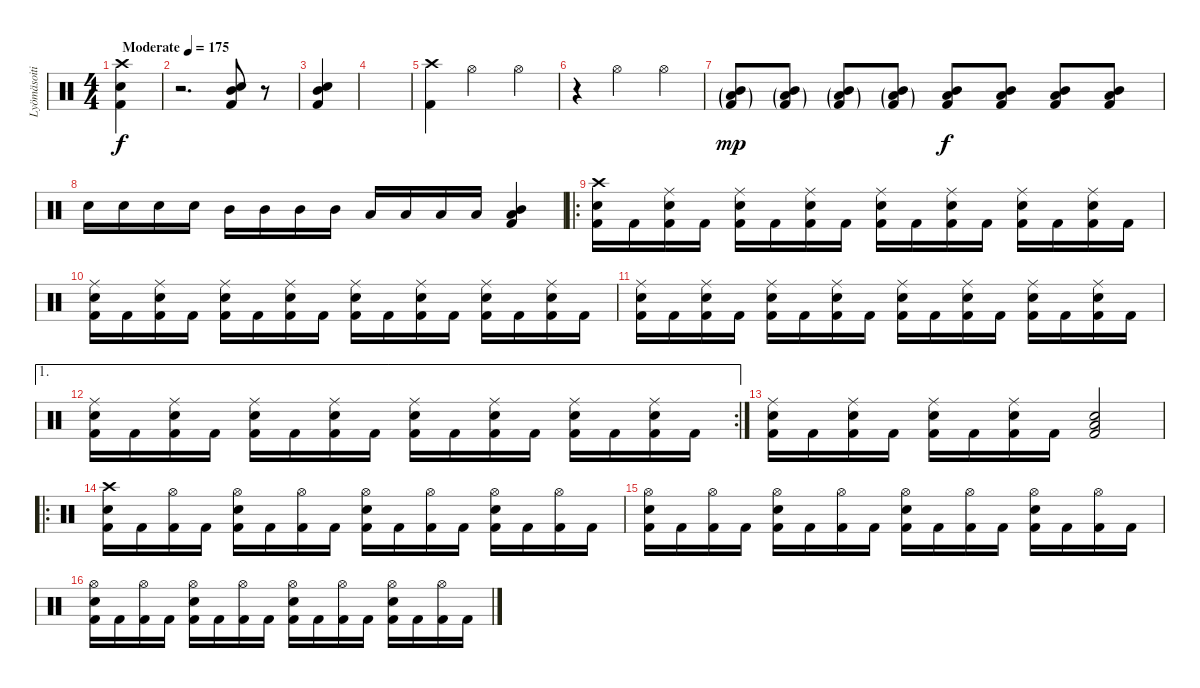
\track ("Lyömäsoitin" "Lyömäsoiti") {instrument percussion}
\staff {score}
\articulation defaults
\ts (4 4)
\tempo (175 "Moderate")
\clef neutral
\ks c
("Kick (hit) 2" "Electric Snare (hit)" "Crash high (hit)").4{dy f} |
r.2{d} ("Kick (hit) 2" "Electric Snare (hit)" "Mid Tom (hit)").8 r.8 |
("Kick (hit) 2" "Electric Snare (hit)" "Mid Tom (hit)").4 |
|
("Kick (hit) 2" "Crash high (hit)").4 "Hi-Hat (open)".2 "Hi-Hat (open)".4 |
r.4 "Hi-Hat (open)".2 "Hi-Hat (open)".4 |
("Kick (hit) 2"{g} "Low Tom (hit)"{g} "Mid Tom (hit)"{g}).8{dy mp} ("Kick (hit) 2"{g} "Low Tom (hit)"{g} "Mid Tom (hit)"{g}).8 ("Kick (hit) 2"{g} "Low Tom (hit)"{g} "Mid Tom (hit)"{g}).8 ("Kick (hit) 2"{g} "Low Tom (hit)"{g} "Mid Tom (hit)"{g}).8 ("Kick (hit) 2" "Low Tom (hit)" "Mid Tom (hit)").8{dy f} ("Kick (hit) 2" "Low Tom (hit)" "Mid Tom (hit)").8 ("Kick (hit) 2" "Low Tom (hit)" "Mid Tom (hit)").8 ("Kick (hit) 2" "Low Tom (hit)" "Mid Tom (hit)").8 |
"Electric Snare (hit)".16 "Electric Snare (hit)".16 "Electric Snare (hit)".16 "Electric Snare (hit)".16 "Mid Tom (hit)".16 "Mid Tom (hit)".16 "Mid Tom (hit)".16 "Mid Tom (hit)".16 "Low Tom (hit)".16 "Low Tom (hit)".16 "Low Tom (hit)".16 "Low Tom (hit)".16 ("Kick (hit) 2" "Low Tom (hit)" "Mid Tom (hit)").4 |
\ro
("Kick (hit) 2" "Electric Snare (hit)" "Crash high (hit)").16 "Kick (hit) 2".16 ("Kick (hit) 2" "Electric Snare (hit)" "Ride (middle)").16 "Kick (hit) 2".16 ("Kick (hit) 2" "Electric Snare (hit)" "Ride (middle)").16 "Kick (hit) 2".16 ("Kick (hit) 2" "Electric Snare (hit)" "Ride (middle)").16 "Kick (hit) 2".16 ("Kick (hit) 2" "Electric Snare (hit)" "Ride (middle)").16 "Kick (hit) 2".16 ("Kick (hit) 2" "Electric Snare (hit)" "Ride (middle)").16 "Kick (hit) 2".16 ("Kick (hit) 2" "Electric Snare (hit)" "Ride (middle)").16 "Kick (hit) 2".16 ("Kick (hit) 2" "Electric Snare (hit)" "Ride (middle)").16 "Kick (hit) 2".16 |
("Kick (hit) 2" "Electric Snare (hit)" "Ride (middle)").16 "Kick (hit) 2".16 ("Kick (hit) 2" "Electric Snare (hit)" "Ride (middle)").16 "Kick (hit) 2".16 ("Kick (hit) 2" "Electric Snare (hit)" "Ride (middle)").16 "Kick (hit) 2".16 ("Kick (hit) 2" "Electric Snare (hit)" "Ride (middle)").16 "Kick (hit) 2".16 ("Kick (hit) 2" "Electric Snare (hit)" "Ride (middle)").16 "Kick (hit) 2".16 ("Kick (hit) 2" "Electric Snare (hit)" "Ride (middle)").16 "Kick (hit) 2".16 ("Kick (hit) 2" "Electric Snare (hit)" "Ride (middle)").16 "Kick (hit) 2".16 ("Kick (hit) 2" "Electric Snare (hit)" "Ride (middle)").16 "Kick (hit) 2".16 |
("Kick (hit) 2" "Electric Snare (hit)" "Ride (middle)").16 "Kick (hit) 2".16 ("Kick (hit) 2" "Electric Snare (hit)" "Ride (middle)").16 "Kick (hit) 2".16 ("Kick (hit) 2" "Electric Snare (hit)" "Ride (middle)").16 "Kick (hit) 2".16 ("Kick (hit) 2" "Electric Snare (hit)" "Ride (middle)").16 "Kick (hit) 2".16 ("Kick (hit) 2" "Electric Snare (hit)" "Ride (middle)").16 "Kick (hit) 2".16 ("Kick (hit) 2" "Electric Snare (hit)" "Ride (middle)").16 "Kick (hit) 2".16 ("Kick (hit) 2" "Electric Snare (hit)" "Ride (middle)").16 "Kick (hit) 2".16 ("Kick (hit) 2" "Electric Snare (hit)" "Ride (middle)").16 "Kick (hit) 2".16 |
\ae 1
\rc 2
("Kick (hit) 2" "Electric Snare (hit)" "Ride (middle)").16 "Kick (hit) 2".16 ("Kick (hit) 2" "Electric Snare (hit)" "Ride (middle)").16 "Kick (hit) 2".16 ("Kick (hit) 2" "Electric Snare (hit)" "Ride (middle)").16 "Kick (hit) 2".16 ("Kick (hit) 2" "Electric Snare (hit)" "Ride (middle)").16 "Kick (hit) 2".16 ("Kick (hit) 2" "Electric Snare (hit)" "Ride (middle)").16 "Kick (hit) 2".16 ("Kick (hit) 2" "Electric Snare (hit)" "Ride (middle)").16 "Kick (hit) 2".16 ("Kick (hit) 2" "Electric Snare (hit)" "Ride (middle)").16 "Kick (hit) 2".16 ("Kick (hit) 2" "Electric Snare (hit)" "Ride (middle)").16 "Kick (hit) 2".16 |
("Kick (hit) 2" "Electric Snare (hit)" "Ride (middle)").16 "Kick (hit) 2".16 ("Kick (hit) 2" "Electric Snare (hit)" "Ride (middle)").16 "Kick (hit) 2".16 ("Kick (hit) 2" "Electric Snare (hit)" "Ride (middle)").16 "Kick (hit) 2".16 ("Kick (hit) 2" "Electric Snare (hit)" "Ride (middle)").16 "Kick (hit) 2".16 ("Kick (hit) 2" "Electric Snare (hit)" "Low Tom (hit)").2 |
\ro
("Kick (hit) 2" "Electric Snare (hit)" "Crash high (hit)").16 "Kick (hit) 2".16 ("Kick (hit) 2" "Hi-Hat (open)").16 "Kick (hit) 2".16 ("Kick (hit) 2" "Electric Snare (hit)" "Hi-Hat (open)").16 "Kick (hit) 2".16 ("Kick (hit) 2" "Hi-Hat (open)").16 "Kick (hit) 2".16 ("Kick (hit) 2" "Electric Snare (hit)" "Hi-Hat (open)").16 "Kick (hit) 2".16 ("Kick (hit) 2" "Hi-Hat (open)").16 "Kick (hit) 2".16 ("Kick (hit) 2" "Electric Snare (hit)" "Hi-Hat (open)").16 "Kick (hit) 2".16 ("Kick (hit) 2" "Hi-Hat (open)").16 "Kick (hit) 2".16 |
("Kick (hit) 2" "Electric Snare (hit)" "Hi-Hat (open)").16 "Kick (hit) 2".16 ("Kick (hit) 2" "Hi-Hat (open)").16 "Kick (hit) 2".16 ("Kick (hit) 2" "Electric Snare (hit)" "Hi-Hat (open)").16 "Kick (hit) 2".16 ("Kick (hit) 2" "Hi-Hat (open)").16 "Kick (hit) 2".16 ("Kick (hit) 2" "Electric Snare (hit)" "Hi-Hat (open)").16 "Kick (hit) 2".16 ("Kick (hit) 2" "Hi-Hat (open)").16 "Kick (hit) 2".16 ("Kick (hit) 2" "Electric Snare (hit)" "Hi-Hat (open)").16 "Kick (hit) 2".16 ("Kick (hit) 2" "Hi-Hat (open)").16 "Kick (hit) 2".16 |
("Kick (hit) 2" "Electric Snare (hit)" "Hi-Hat (open)").16 "Kick (hit) 2".16 ("Kick (hit) 2" "Hi-Hat (open)").16 "Kick (hit) 2".16 ("Kick (hit) 2" "Electric Snare (hit)" "Hi-Hat (open)").16 "Kick (hit) 2".16 ("Kick (hit) 2" "Hi-Hat (open)").16 "Kick (hit) 2".16 ("Kick (hit) 2" "Electric Snare (hit)" "Hi-Hat (open)").16 "Kick (hit) 2".16 ("Kick (hit) 2" "Hi-Hat (open)").16 "Kick (hit) 2".16 ("Kick (hit) 2" "Electric Snare (hit)" "Hi-Hat (open)").16 "Kick (hit) 2".16 ("Kick (hit) 2" "Hi-Hat (open)").16 "Kick (hit) 2".16
